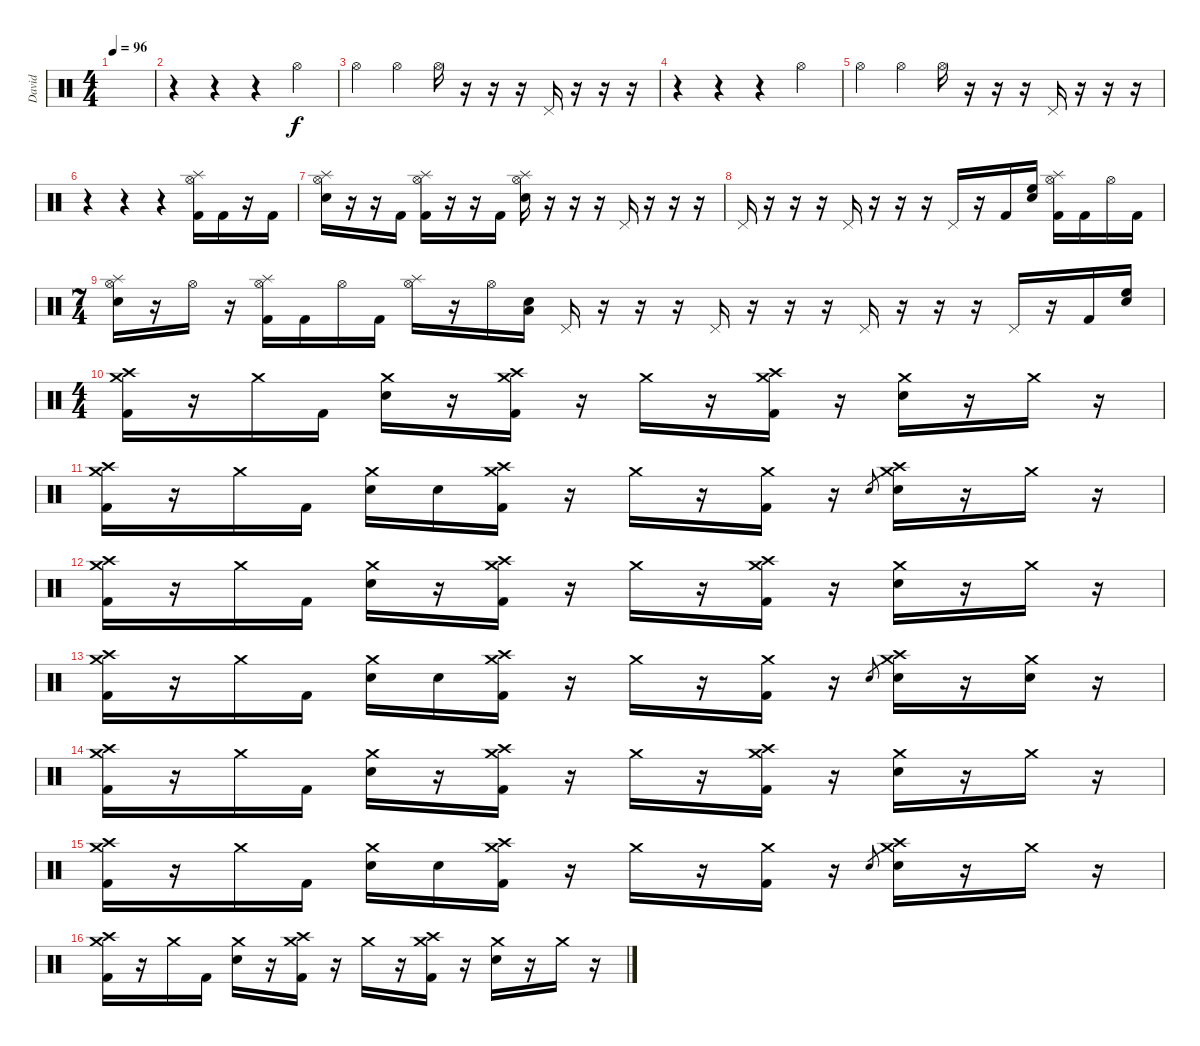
\track ("David" "David") {instrument percussion}
\staff {score}
\articulation defaults
\ts (4 4)
\tempo 96
\clef neutral
\ks c
|
r.4 r.4 r.4 "Hi-Hat (open)".4 |
"Hi-Hat (open)".4 "Hi-Hat (open)".4 "Hi-Hat (open)".16 r.16 r.16 r.16 "Pedal Hi-Hat (hit)".16 r.16 r.16 r.16 |
r.4 r.4 r.4 "Hi-Hat (open)".4 |
"Hi-Hat (open)".4 "Hi-Hat (open)".4 "Hi-Hat (open)".16 r.16 r.16 r.16 "Pedal Hi-Hat (hit)".16 r.16 r.16 r.16 |
r.4 r.4 r.4 ("Splash (hit)" "Hi-Hat (open)" "Kick (hit) 2").16 "Kick (hit) 2".16 r.16 "Kick (hit) 2".16 |
("Splash (hit)" "Hi-Hat (open)" "Electric Snare (hit)").16 r.16 r.16 "Kick (hit) 2".16 ("Splash (hit)" "Hi-Hat (open)" "Kick (hit) 2").16 r.16 r.16 "Kick (hit) 2".16 ("Splash (hit)" "Hi-Hat (open)" "Electric Snare (hit)").16 r.16 r.16 r.16 "Pedal Hi-Hat (hit)".16 r.16 r.16 r.16 |
"Pedal Hi-Hat (hit)".16 r.16 r.16 r.16 "Pedal Hi-Hat (hit)".16 r.16 r.16 r.16 "Pedal Hi-Hat (hit)".16 r.16 "Kick (hit) 2".16 ("Electric Snare (hit)" "High Floor Tom (hit)").16 ("Splash (hit)" "Hi-Hat (open)" "Kick (hit) 2").16 "Kick (hit) 2".16 "Hi-Hat (open)".16 "Kick (hit) 2".16 |
\ts (7 4)
("Splash (hit)" "Hi-Hat (open)" "Electric Snare (hit)").16 r.16 "Hi-Hat (open)".16 r.16 ("Splash (hit)" "Hi-Hat (open)" "Kick (hit) 2").16 "Kick (hit) 2".16 "Hi-Hat (open)".16 "Kick (hit) 2".16 ("Splash (hit)" "Hi-Hat (open)").16 r.16 "Hi-Hat (open)".16 ("Electric Snare (hit)" "Low Floor Tom (hit)").16 "Pedal Hi-Hat (hit)".16 r.16 r.16 r.16 "Pedal Hi-Hat (hit)".16 r.16 r.16 r.16 "Pedal Hi-Hat (hit)".16 r.16 r.16 r.16 "Pedal Hi-Hat (hit)".16 r.16 "Kick (hit) 2".16 ("Electric Snare (hit)" "High Floor Tom (hit)").16 |
\ts (4 4)
("Crash high (hit)" "Crash medium (hit)" "Kick (hit) 2").16 r.16 "Crash medium (hit)".16 "Kick (hit) 2".16 ("Crash medium (hit)" "Electric Snare (hit)").16 r.16 ("Crash high (hit)" "Crash medium (hit)" "Kick (hit) 2").16 r.16 "Crash medium (hit)".16 r.16 ("Crash high (hit)" "Crash medium (hit)" "Kick (hit) 2").16 r.16 ("Crash medium (hit)" "Electric Snare (hit)").16 r.16 "Crash medium (hit)".16 r.16 |
("Crash high (hit)" "Crash medium (hit)" "Kick (hit) 2").16 r.16 "Crash medium (hit)".16 "Kick (hit) 2".16 ("Crash medium (hit)" "Electric Snare (hit)").16 "Electric Snare (hit)".16 ("Crash high (hit)" "Crash medium (hit)" "Kick (hit) 2").16 r.16 "Crash medium (hit)".16 r.16 ("Crash medium (hit)" "Kick (hit) 2").16 r.16 "Electric Snare (hit)".8{gr} ("Crash high (hit)" "Crash medium (hit)" "Electric Snare (hit)").16 r.16 "Crash medium (hit)".16 r.16 |
("Crash high (hit)" "Crash medium (hit)" "Kick (hit) 2").16 r.16 "Crash medium (hit)".16 "Kick (hit) 2".16 ("Crash medium (hit)" "Electric Snare (hit)").16 r.16 ("Crash high (hit)" "Crash medium (hit)" "Kick (hit) 2").16 r.16 "Crash medium (hit)".16 r.16 ("Crash high (hit)" "Crash medium (hit)" "Kick (hit) 2").16 r.16 ("Crash medium (hit)" "Electric Snare (hit)").16 r.16 "Crash medium (hit)".16 r.16 |
("Crash high (hit)" "Crash medium (hit)" "Kick (hit) 2").16 r.16 "Crash medium (hit)".16 "Kick (hit) 2".16 ("Crash medium (hit)" "Electric Snare (hit)").16 "Electric Snare (hit)".16 ("Crash high (hit)" "Crash medium (hit)" "Kick (hit) 2").16 r.16 "Crash medium (hit)".16 r.16 ("Crash medium (hit)" "Kick (hit) 2").16 r.16 "Electric Snare (hit)".8{gr} ("Crash high (hit)" "Crash medium (hit)" "Electric Snare (hit)").16 r.16 ("Crash medium (hit)" "Electric Snare (hit)").16 r.16 |
("Crash high (hit)" "Crash medium (hit)" "Kick (hit) 2").16 r.16 "Crash medium (hit)".16 "Kick (hit) 2".16 ("Crash medium (hit)" "Electric Snare (hit)").16 r.16 ("Crash high (hit)" "Crash medium (hit)" "Kick (hit) 2").16 r.16 "Crash medium (hit)".16 r.16 ("Crash high (hit)" "Crash medium (hit)" "Kick (hit) 2").16 r.16 ("Crash medium (hit)" "Electric Snare (hit)").16 r.16 "Crash medium (hit)".16 r.16 |
("Crash high (hit)" "Crash medium (hit)" "Kick (hit) 2").16 r.16 "Crash medium (hit)".16 "Kick (hit) 2".16 ("Crash medium (hit)" "Electric Snare (hit)").16 "Electric Snare (hit)".16 ("Crash high (hit)" "Crash medium (hit)" "Kick (hit) 2").16 r.16 "Crash medium (hit)".16 r.16 ("Crash medium (hit)" "Kick (hit) 2").16 r.16 "Electric Snare (hit)".8{gr} ("Crash high (hit)" "Crash medium (hit)" "Electric Snare (hit)").16 r.16 "Crash medium (hit)".16 r.16 |
("Crash high (hit)" "Crash medium (hit)" "Kick (hit) 2").16 r.16 "Crash medium (hit)".16 "Kick (hit) 2".16 ("Crash medium (hit)" "Electric Snare (hit)").16 r.16 ("Crash high (hit)" "Crash medium (hit)" "Kick (hit) 2").16 r.16 "Crash medium (hit)".16 r.16 ("Crash high (hit)" "Crash medium (hit)" "Kick (hit) 2").16 r.16 ("Crash medium (hit)" "Electric Snare (hit)").16 r.16 "Crash medium (hit)".16 r.16
